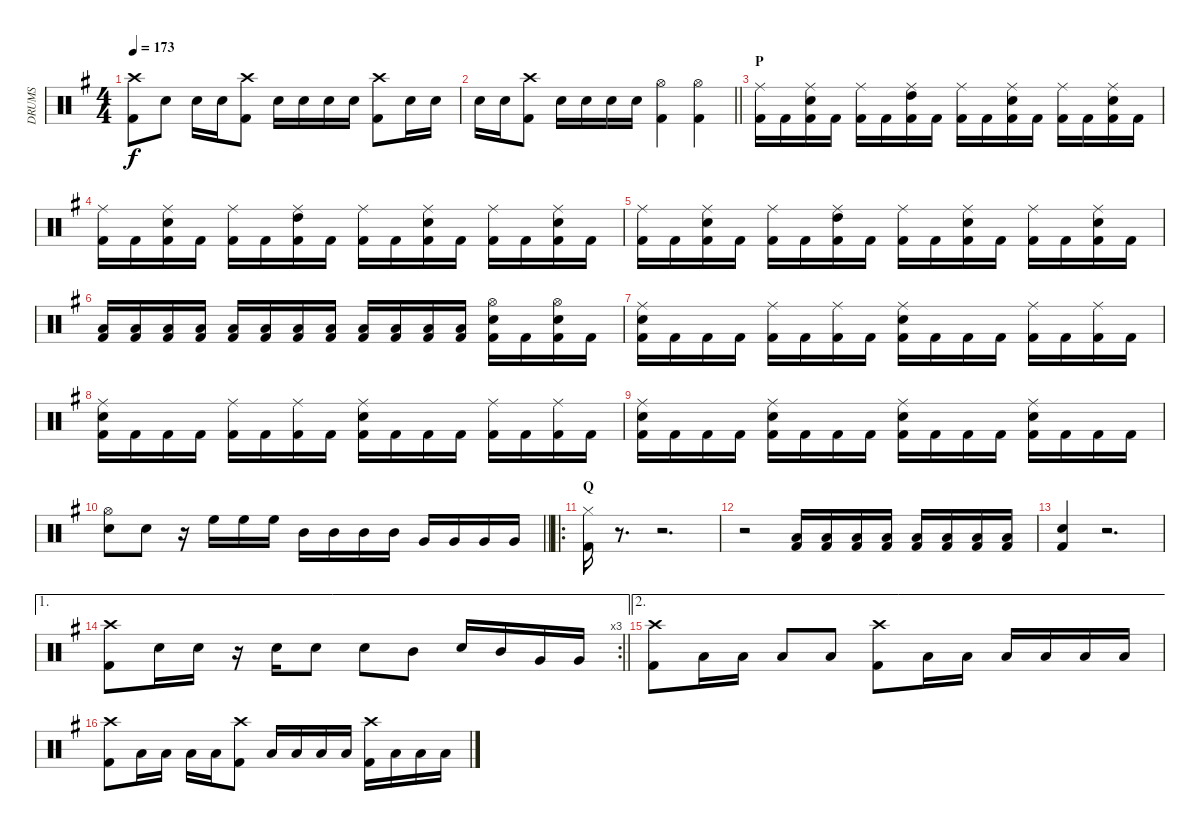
\track ("DRUMS" "DRUMS") {instrument percussion}
\staff {score}
\articulation defaults
\ts (4 4)
\tempo 173
\clef neutral
\ks g
("Crash high (hit)" "Kick (hit) 2").8{dy f} "Snare (hit) 2".8 "Snare (hit) 2".16 "Snare (hit) 2".16 ("Crash high (hit)" "Kick (hit) 2").8 "Snare (hit) 2".16 "Snare (hit) 2".16 "Snare (hit) 2".16 "Snare (hit) 2".16 ("Crash high (hit)" "Kick (hit) 2").8 "Snare (hit) 2".16 "Snare (hit) 2".16 |
\barLineRight lightlight "Snare (hit) 2".16 "Snare (hit) 2".16
("Crash high (hit)" "Kick (hit) 2").8 "Snare (hit) 2".16 "Snare (hit) 2".16 "Snare (hit) 2".16 "Snare (hit) 2".16 ("Hi-Hat (open)" "Kick (hit) 2").4 ("Hi-Hat (open)" "Kick (hit) 2").4 |
\section ("" "P")
("Ride (middle)" "Kick (hit) 2").16 "Kick (hit) 2".16 ("Ride (middle)" "Kick (hit) 2" "Snare (hit) 2").16 "Kick (hit) 2".16 ("Ride (middle)" "Kick (hit) 2").16 "Kick (hit) 2".16 ("Ride (middle)" "Kick (hit) 2" "High Tom (hit)").16 "Kick (hit) 2".16 ("Ride (middle)" "Kick (hit) 2").16 "Kick (hit) 2".16 ("Ride (middle)" "Kick (hit) 2" "Snare (hit) 2").16 "Kick (hit) 2".16 ("Ride (middle)" "Kick (hit) 2").16 "Kick (hit) 2".16 ("Ride (middle)" "Kick (hit) 2" "Snare (hit) 2").16 "Kick (hit) 2".16 |
("Ride (middle)" "Kick (hit) 2").16 "Kick (hit) 2".16 ("Ride (middle)" "Kick (hit) 2" "Snare (hit) 2").16 "Kick (hit) 2".16 ("Ride (middle)" "Kick (hit) 2").16 "Kick (hit) 2".16 ("Ride (middle)" "Kick (hit) 2" "High Tom (hit)").16 "Kick (hit) 2".16 ("Ride (middle)" "Kick (hit) 2").16 "Kick (hit) 2".16 ("Ride (middle)" "Kick (hit) 2" "Snare (hit) 2").16 "Kick (hit) 2".16 ("Ride (middle)" "Kick (hit) 2").16 "Kick (hit) 2".16 ("Ride (middle)" "Kick (hit) 2" "Snare (hit) 2").16 "Kick (hit) 2".16 |
("Ride (middle)" "Kick (hit) 2").16 "Kick (hit) 2".16 ("Ride (middle)" "Kick (hit) 2" "Snare (hit) 2").16 "Kick (hit) 2".16 ("Ride (middle)" "Kick (hit) 2").16 "Kick (hit) 2".16 ("Ride (middle)" "Kick (hit) 2" "High Tom (hit)").16 "Kick (hit) 2".16 ("Ride (middle)" "Kick (hit) 2").16 "Kick (hit) 2".16 ("Ride (middle)" "Kick (hit) 2" "Snare (hit) 2").16 "Kick (hit) 2".16 ("Ride (middle)" "Kick (hit) 2").16 "Kick (hit) 2".16 ("Ride (middle)" "Kick (hit) 2" "Snare (hit) 2").16 "Kick (hit) 2".16 |
("Low Floor Tom (hit)" "Kick (hit) 2").16 ("Low Floor Tom (hit)" "Kick (hit) 2").16 ("Low Floor Tom (hit)" "Kick (hit) 2").16 ("Low Floor Tom (hit)" "Kick (hit) 2").16 ("Low Floor Tom (hit)" "Kick (hit) 2").16 ("Low Floor Tom (hit)" "Kick (hit) 2").16 ("Low Floor Tom (hit)" "Kick (hit) 2").16 ("Low Floor Tom (hit)" "Kick (hit) 2").16 ("Low Floor Tom (hit)" "Kick (hit) 2").16 ("Low Floor Tom (hit)" "Kick (hit) 2").16 ("Low Floor Tom (hit)" "Kick (hit) 2").16 ("Low Floor Tom (hit)" "Kick (hit) 2").16 ("Hi-Hat (open)" "Snare (hit) 2" "Kick (hit) 2").16 "Kick (hit) 2".16 ("Hi-Hat (open)" "Snare (hit) 2" "Kick (hit) 2").16 "Kick (hit) 2".16 |
("Ride (middle)" "Snare (hit) 2" "Kick (hit) 2").16 "Kick (hit) 2".16 "Kick (hit) 2".16 "Kick (hit) 2".16 ("Ride (middle)" "Kick (hit) 2").16 "Kick (hit) 2".16 ("Ride (middle)" "Kick (hit) 2").16 "Kick (hit) 2".16 ("Ride (middle)" "Snare (hit) 2" "Kick (hit) 2").16 "Kick (hit) 2".16 "Kick (hit) 2".16 "Kick (hit) 2".16 ("Ride (middle)" "Kick (hit) 2").16 "Kick (hit) 2".16 ("Ride (middle)" "Kick (hit) 2").16 "Kick (hit) 2".16 |
("Ride (middle)" "Snare (hit) 2" "Kick (hit) 2").16 "Kick (hit) 2".16 "Kick (hit) 2".16 "Kick (hit) 2".16 ("Ride (middle)" "Kick (hit) 2").16 "Kick (hit) 2".16 ("Ride (middle)" "Kick (hit) 2").16 "Kick (hit) 2".16 ("Ride (middle)" "Snare (hit) 2" "Kick (hit) 2").16 "Kick (hit) 2".16 "Kick (hit) 2".16 "Kick (hit) 2".16 ("Ride (middle)" "Kick (hit) 2").16 "Kick (hit) 2".16 ("Ride (middle)" "Kick (hit) 2").16 "Kick (hit) 2".16 |
("Ride (middle)" "Snare (hit) 2" "Kick (hit) 2").16 "Kick (hit) 2".16 "Kick (hit) 2".16 "Kick (hit) 2".16 ("Ride (middle)" "Snare (hit) 2" "Kick (hit) 2").16 "Kick (hit) 2".16 "Kick (hit) 2".16 "Kick (hit) 2".16 ("Ride (middle)" "Snare (hit) 2" "Kick (hit) 2").16 "Kick (hit) 2".16 "Kick (hit) 2".16 "Kick (hit) 2".16 ("Ride (middle)" "Snare (hit) 2" "Kick (hit) 2").16 "Kick (hit) 2".16 "Kick (hit) 2".16 "Kick (hit) 2".16 |
\barLineRight lightlight
("Hi-Hat (open)" "Snare (hit) 2").8 "Snare (hit) 2".8 r.16 "High Floor Tom (hit)".16 "High Floor Tom (hit)".16 "High Floor Tom (hit)".16 "Mid Tom (hit)".16 "Mid Tom (hit)".16 "Mid Tom (hit)".16 "Mid Tom (hit)".16 "Very Low Tom (hit)".16 "Very Low Tom (hit)".16 "Very Low Tom (hit)".16 "Very Low Tom (hit)".16 |
\ro
\section ("" "Q")
("Hi-Hat (closed)" "Kick (hit) 2").16 r.8{d} r.2{d} |
r.2 ("Low Floor Tom (hit)" "Kick (hit) 2").16 ("Low Floor Tom (hit)" "Kick (hit) 2").16 ("Low Floor Tom (hit)" "Kick (hit) 2").16 ("Low Floor Tom (hit)" "Kick (hit) 2").16 ("Low Floor Tom (hit)" "Kick (hit) 2").16 ("Low Floor Tom (hit)" "Kick (hit) 2").16 ("Low Floor Tom (hit)" "Kick (hit) 2").16 ("Low Floor Tom (hit)" "Kick (hit) 2").16 |
("Snare (hit) 2" "Kick (hit) 2").4 r.2{d} |
\ae 1
\rc 3
\barLineRight lightlight
("Crash high (hit)" "Kick (hit) 2").8 "Snare (hit) 2".16 "Snare (hit) 2".16 r.16 "Snare (hit) 2".16 "Snare (hit) 2".8 "Snare (hit) 2".8 "Mid Tom (hit)".8 "Snare (hit) 2".16 "Mid Tom (hit)".16 "Very Low Tom (hit)".16 "Very Low Tom (hit)".16 |
\ae 2
("Crash high (hit)" "Kick (hit) 2").8 "Low Floor Tom (hit)".16 "Low Floor Tom (hit)".16 "Low Floor Tom (hit)".8 "Low Floor Tom (hit)".8 ("Crash high (hit)" "Kick (hit) 2").8 "Low Floor Tom (hit)".16 "Low Floor Tom (hit)".16 "Low Floor Tom (hit)".16 "Low Floor Tom (hit)".16 "Low Floor Tom (hit)".16 "Low Floor Tom (hit)".16 |
("Crash high (hit)" "Kick (hit) 2").8 "Low Floor Tom (hit)".16 "Low Floor Tom (hit)".16 "Low Floor Tom (hit)".16 "Low Floor Tom (hit)".16 ("Crash high (hit)" "Kick (hit) 2").8 "Low Floor Tom (hit)".16 "Low Floor Tom (hit)".16 "Low Floor Tom (hit)".16 "Low Floor Tom (hit)".16 ("Crash high (hit)" "Kick (hit) 2").16 "Low Floor Tom (hit)".16 "Low Floor Tom (hit)".16 "Low Floor Tom (hit)".16
